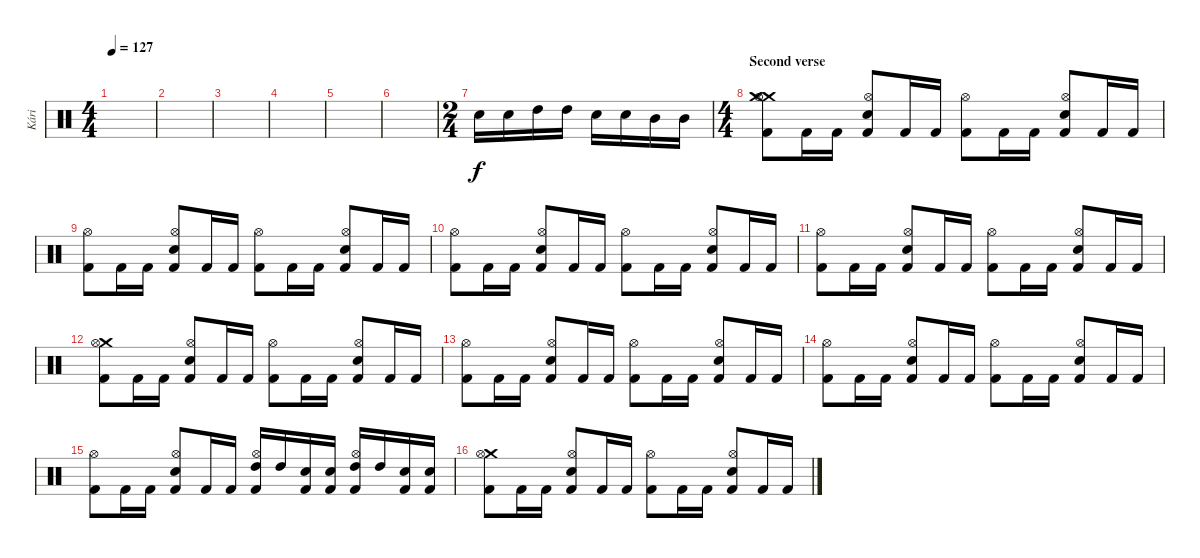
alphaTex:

\track ("Kári" "Kári") {instrument percussion}
\staff {score}
\articulation defaults
\ts (4 4)
\tempo 127
\clef neutral
\ks c
|
|
|
|
|
|
\ts (2 4)
"Snare (hit) 2".16 "Snare (hit) 2".16 "High Tom (hit)".16 "High Tom (hit)".16 "Snare (hit) 2".16 "Snare (hit) 2".16 "Mid Tom (hit)".16 "Mid Tom (hit)".16 |
\ts (4 4)
\section ("" "Second verse")
("Crash medium (hit)" "Hi-Hat (open)" "Crash medium (hit)" "Kick (hit) 2").8 "Kick (hit) 2".16 "Kick (hit) 2".16 ("Hi-Hat (open)" "Snare (hit) 2" "Kick (hit) 2").8 "Kick (hit) 2".16 "Kick (hit) 2".16 ("Hi-Hat (open)" "Kick (hit) 2").8 "Kick (hit) 2".16 "Kick (hit) 2".16 ("Hi-Hat (open)" "Snare (hit) 2" "Kick (hit) 2").8 "Kick (hit) 2".16 "Kick (hit) 2".16 |
("Hi-Hat (open)" "Kick (hit) 2").8 "Kick (hit) 2".16 "Kick (hit) 2".16 ("Hi-Hat (open)" "Snare (hit) 2" "Kick (hit) 2").8 "Kick (hit) 2".16 "Kick (hit) 2".16 ("Hi-Hat (open)" "Kick (hit) 2").8 "Kick (hit) 2".16 "Kick (hit) 2".16 ("Hi-Hat (open)" "Snare (hit) 2" "Kick (hit) 2").8 "Kick (hit) 2".16 "Kick (hit) 2".16 |
("Hi-Hat (open)" "Kick (hit) 2").8 "Kick (hit) 2".16 "Kick (hit) 2".16 ("Hi-Hat (open)" "Snare (hit) 2" "Kick (hit) 2").8 "Kick (hit) 2".16 "Kick (hit) 2".16 ("Hi-Hat (open)" "Kick (hit) 2").8 "Kick (hit) 2".16 "Kick (hit) 2".16 ("Hi-Hat (open)" "Snare (hit) 2" "Kick (hit) 2").8 "Kick (hit) 2".16 "Kick (hit) 2".16 |
("Hi-Hat (open)" "Kick (hit) 2").8 "Kick (hit) 2".16 "Kick (hit) 2".16 ("Hi-Hat (open)" "Snare (hit) 2" "Kick (hit) 2").8 "Kick (hit) 2".16 "Kick (hit) 2".16 ("Hi-Hat (open)" "Kick (hit) 2").8 "Kick (hit) 2".16 "Kick (hit) 2".16 ("Hi-Hat (open)" "Snare (hit) 2" "Kick (hit) 2").8 "Kick (hit) 2".16 "Kick (hit) 2".16 |
("Crash medium (hit)" "Hi-Hat (open)" "Kick (hit) 2").8 "Kick (hit) 2".16 "Kick (hit) 2".16 ("Hi-Hat (open)" "Snare (hit) 2" "Kick (hit) 2").8 "Kick (hit) 2".16 "Kick (hit) 2".16 ("Hi-Hat (open)" "Kick (hit) 2").8 "Kick (hit) 2".16 "Kick (hit) 2".16 ("Hi-Hat (open)" "Snare (hit) 2" "Kick (hit) 2").8 "Kick (hit) 2".16 "Kick (hit) 2".16 |
("Hi-Hat (open)" "Kick (hit) 2").8 "Kick (hit) 2".16 "Kick (hit) 2".16 ("Hi-Hat (open)" "Snare (hit) 2" "Kick (hit) 2").8 "Kick (hit) 2".16 "Kick (hit) 2".16 ("Hi-Hat (open)" "Kick (hit) 2").8 "Kick (hit) 2".16 "Kick (hit) 2".16 ("Hi-Hat (open)" "Snare (hit) 2" "Kick (hit) 2").8 "Kick (hit) 2".16 "Kick (hit) 2".16 |
("Hi-Hat (open)" "Kick (hit) 2").8 "Kick (hit) 2".16 "Kick (hit) 2".16 ("Hi-Hat (open)" "Snare (hit) 2" "Kick (hit) 2").8 "Kick (hit) 2".16 "Kick (hit) 2".16 ("Hi-Hat (open)" "Kick (hit) 2").8 "Kick (hit) 2".16 "Kick (hit) 2".16 ("Hi-Hat (open)" "Snare (hit) 2" "Kick (hit) 2").8 "Kick (hit) 2".16 "Kick (hit) 2".16 |
("Hi-Hat (open)" "Kick (hit) 2").8 "Kick (hit) 2".16 "Kick (hit) 2".16 ("Hi-Hat (open)" "Snare (hit) 2" "Kick (hit) 2").8 "Kick (hit) 2".16 "Kick (hit) 2".16 ("Hi-Hat (open)" "High Tom (hit)" "Kick (hit) 2").16 "High Tom (hit)".16 ("Snare (hit) 2" "Kick (hit) 2").16 ("Snare (hit) 2" "Kick (hit) 2").16 ("Hi-Hat (open)" "High Tom (hit)" "Kick (hit) 2").16 "High Tom (hit)".16 ("Snare (hit) 2" "Kick (hit) 2").16 ("Snare (hit) 2" "Kick (hit) 2").16 |
("Crash medium (hit)" "Hi-Hat (open)" "Kick (hit) 2").8 "Kick (hit) 2".16 "Kick (hit) 2".16 ("Hi-Hat (open)" "Snare (hit) 2" "Kick (hit) 2").8 "Kick (hit) 2".16 "Kick (hit) 2".16 ("Hi-Hat (open)" "Kick (hit) 2").8 "Kick (hit) 2".16 "Kick (hit) 2".16 ("Hi-Hat (open)" "Snare (hit) 2" "Kick (hit) 2").8 "Kick (hit) 2".16 "Kick (hit) 2".16
